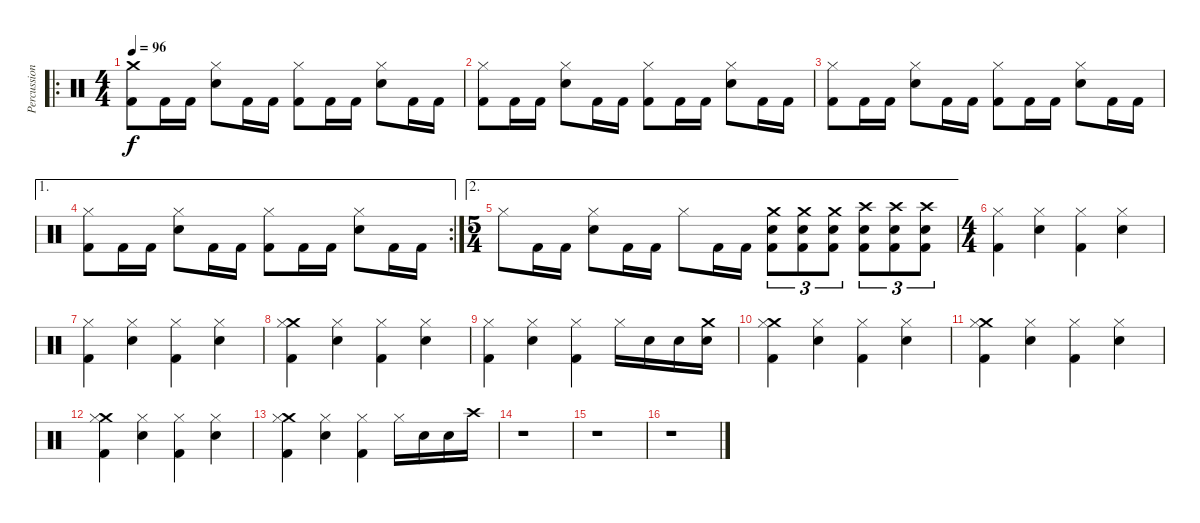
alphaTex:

\track ("Percussion" "Percussion") {instrument percussion}
\staff {score}
\articulation defaults
\ro
\ts (4 4)
\tempo 96
\clef neutral
\ks c
("Crash medium (hit)" "Kick (hit) 2").8{dy f} "Kick (hit) 2".16 "Kick (hit) 2".16 ("Electric Snare (hit)" "Hi-Hat (closed)").8 "Kick (hit) 2".16 "Kick (hit) 2".16 ("Hi-Hat (closed)" "Kick (hit) 2").8 "Kick (hit) 2".16 "Kick (hit) 2".16 ("Electric Snare (hit)" "Hi-Hat (closed)").8 "Kick (hit) 2".16 "Kick (hit) 2".16 |
("Hi-Hat (closed)" "Kick (hit) 2").8 "Kick (hit) 2".16 "Kick (hit) 2".16 ("Electric Snare (hit)" "Hi-Hat (closed)").8 "Kick (hit) 2".16 "Kick (hit) 2".16 ("Hi-Hat (closed)" "Kick (hit) 2").8 "Kick (hit) 2".16 "Kick (hit) 2".16 ("Electric Snare (hit)" "Hi-Hat (closed)").8 "Kick (hit) 2".16 "Kick (hit) 2".16 |
("Hi-Hat (closed)" "Kick (hit) 2").8 "Kick (hit) 2".16 "Kick (hit) 2".16 ("Electric Snare (hit)" "Hi-Hat (closed)").8 "Kick (hit) 2".16 "Kick (hit) 2".16 ("Hi-Hat (closed)" "Kick (hit) 2").8 "Kick (hit) 2".16 "Kick (hit) 2".16 ("Electric Snare (hit)" "Hi-Hat (closed)").8 "Kick (hit) 2".16 "Kick (hit) 2".16 |
\ae 1
\rc 2
("Hi-Hat (closed)" "Kick (hit) 2").8 "Kick (hit) 2".16 "Kick (hit) 2".16 ("Electric Snare (hit)" "Hi-Hat (closed)").8 "Kick (hit) 2".16 "Kick (hit) 2".16 ("Hi-Hat (closed)" "Kick (hit) 2").8 "Kick (hit) 2".16 "Kick (hit) 2".16 ("Electric Snare (hit)" "Hi-Hat (closed)").8 "Kick (hit) 2".16 "Kick (hit) 2".16 |
\ae 2
\ts (5 4)
"Hi-Hat (closed)".8 "Kick (hit) 2".16 "Kick (hit) 2".16 ("Hi-Hat (closed)" "Electric Snare (hit)").8 "Kick (hit) 2".16 "Kick (hit) 2".16 "Hi-Hat (closed)".8 "Kick (hit) 2".16 "Kick (hit) 2".16 ("Crash medium (hit)" "Electric Snare (hit)" "Kick (hit) 2").8{tu (3 2)} ("Crash medium (hit)" "Electric Snare (hit)" "Kick (hit) 2").8{tu (3 2)} ("Crash medium (hit)" "Electric Snare (hit)" "Kick (hit) 2").8{tu (3 2)} ("Crash high (hit)" "Electric Snare (hit)" "Kick (hit) 2").8{tu (3 2)} ("Crash high (hit)" "Electric Snare (hit)" "Kick (hit) 2").8{tu (3 2)} ("Crash high (hit)" "Electric Snare (hit)" "Kick (hit) 2").8{tu (3 2)} |
\ts (4 4)
("Hi-Hat (closed)" "Kick (hit) 2").4 ("Hi-Hat (closed)" "Electric Snare (hit)").4 ("Hi-Hat (closed)" "Kick (hit) 2").4 ("Hi-Hat (closed)" "Electric Snare (hit)").4 |
("Hi-Hat (closed)" "Kick (hit) 2").4 ("Hi-Hat (closed)" "Electric Snare (hit)").4 ("Hi-Hat (closed)" "Kick (hit) 2").4 ("Hi-Hat (closed)" "Electric Snare (hit)").4 |
("Crash medium (hit)" "Hi-Hat (closed)" "Kick (hit) 2").4 ("Hi-Hat (closed)" "Electric Snare (hit)").4 ("Hi-Hat (closed)" "Kick (hit) 2").4 ("Hi-Hat (closed)" "Electric Snare (hit)").4 |
("Hi-Hat (closed)" "Kick (hit) 2").4 ("Hi-Hat (closed)" "Electric Snare (hit)").4 ("Hi-Hat (closed)" "Kick (hit) 2").4 "Hi-Hat (closed)".16 "Electric Snare (hit)".16 "Electric Snare (hit)".16 ("Crash medium (hit)" "Electric Snare (hit)").16 |
("Crash medium (hit)" "Hi-Hat (closed)" "Kick (hit) 2").4 ("Hi-Hat (closed)" "Electric Snare (hit)").4 ("Hi-Hat (closed)" "Kick (hit) 2").4 ("Hi-Hat (closed)" "Electric Snare (hit)").4 |
("Crash medium (hit)" "Hi-Hat (closed)" "Kick (hit) 2").4 ("Hi-Hat (closed)" "Electric Snare (hit)").4 ("Hi-Hat (closed)" "Kick (hit) 2").4 ("Hi-Hat (closed)" "Electric Snare (hit)").4 |
("Crash medium (hit)" "Hi-Hat (closed)" "Kick (hit) 2").4 ("Hi-Hat (closed)" "Electric Snare (hit)").4 ("Hi-Hat (closed)" "Kick (hit) 2").4 ("Hi-Hat (closed)" "Electric Snare (hit)").4 |
("Crash medium (hit)" "Hi-Hat (closed)" "Kick (hit) 2").4 ("Hi-Hat (closed)" "Electric Snare (hit)").4 ("Hi-Hat (closed)" "Kick (hit) 2").4 "Hi-Hat (closed)".16 "Electric Snare (hit)".16 "Electric Snare (hit)".16 "Crash high (hit)".16 |
r.1 |
r.1 |
r.1
